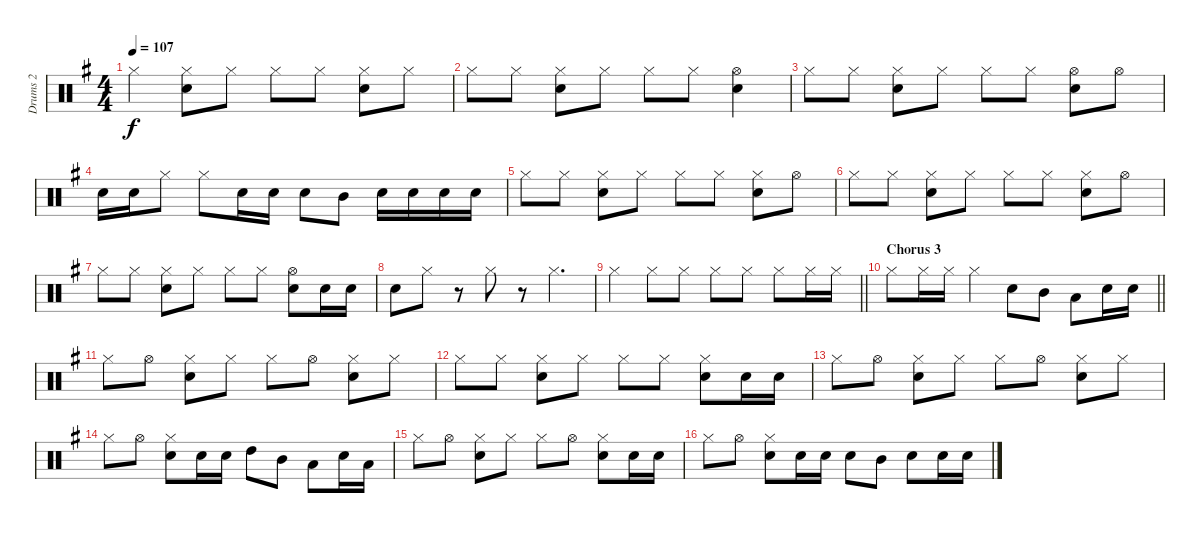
\track ("Drums 2" "Drums 2") {instrument percussion}
\staff {score}
\articulation defaults
\ts (4 4)
\tempo 107
\clef neutral
\ks g "Hi-Hat (closed)".4{dy f}
("Hi-Hat (closed)" "Snare (hit) 2").8 "Hi-Hat (closed)".8 "Hi-Hat (closed)".8 "Hi-Hat (closed)".8 ("Hi-Hat (closed)" "Snare (hit) 2").8 "Hi-Hat (closed)".8 |
"Hi-Hat (closed)".8 "Hi-Hat (closed)".8 ("Snare (hit) 2" "Hi-Hat (closed)").8 "Hi-Hat (closed)".8 "Hi-Hat (closed)".8 "Hi-Hat (closed)".8 ("Snare (hit) 2" "Hi-Hat (open)").4 |
"Hi-Hat (closed)".8 "Hi-Hat (closed)".8 ("Snare (hit) 2" "Hi-Hat (closed)").8 "Hi-Hat (closed)".8 "Hi-Hat (closed)".8 "Hi-Hat (closed)".8 ("Hi-Hat (open)" "Snare (hit) 2").8 "Hi-Hat (open)".8 |
"Snare (hit) 2".16 "Snare (hit) 2".16 "Hi-Hat (closed)".8 "Hi-Hat (closed)".8 "Snare (hit) 2".16 "Snare (hit) 2".16 "Snare (hit) 2".8 "Mid Tom (hit)".8 "Snare (hit) 2".16 "Snare (hit) 2".16 "Snare (hit) 2".16 "Snare (hit) 2".16 |
"Hi-Hat (closed)".8 "Hi-Hat (closed)".8 ("Snare (hit) 2" "Hi-Hat (closed)").8 "Hi-Hat (closed)".8 "Hi-Hat (closed)".8 "Hi-Hat (closed)".8 ("Hi-Hat (closed)" "Snare (hit) 2").8 "Hi-Hat (open)".8 |
"Hi-Hat (closed)".8 "Hi-Hat (closed)".8 ("Snare (hit) 2" "Hi-Hat (closed)").8 "Hi-Hat (closed)".8 "Hi-Hat (closed)".8 "Hi-Hat (closed)".8 ("Snare (hit) 2" "Hi-Hat (closed)").8 "Hi-Hat (open)".8 |
"Hi-Hat (closed)".8 "Hi-Hat (closed)".8 ("Snare (hit) 2" "Hi-Hat (closed)").8 "Hi-Hat (closed)".8 "Hi-Hat (closed)".8 "Hi-Hat (closed)".8 ("Hi-Hat (open)" "Snare (hit) 2").8 "Snare (hit) 2".16 "Snare (hit) 2".16 |
"Snare (hit) 2".8 "Hi-Hat (closed)".8 r.8 "Hi-Hat (closed)".8 r.8 "Hi-Hat (closed)".4{d} |
\barLineRight lightlight "Hi-Hat (closed)".4 "Hi-Hat (closed)".8 "Hi-Hat (closed)".8 "Hi-Hat (closed)".8 "Hi-Hat (closed)".8 "Hi-Hat (closed)".8 "Hi-Hat (closed)".16 "Hi-Hat (closed)".16
|
\section ("" "Chorus 3")
\barLineRight lightlight "Hi-Hat (closed)".8 "Hi-Hat (closed)".16 "Hi-Hat (closed)".16 "Hi-Hat (closed)".4 "Snare (hit) 2".8 "Mid Tom (hit)".8 "Low Tom (hit)".8 "Snare (hit) 2".16 "Snare (hit) 2".16
|
"Hi-Hat (closed)".8 "Hi-Hat (open)".8 ("Snare (hit) 2" "Hi-Hat (closed)").8 "Hi-Hat (closed)".8 "Hi-Hat (closed)".8 "Hi-Hat (open)".8 ("Hi-Hat (closed)" "Snare (hit) 2").8 "Hi-Hat (closed)".8 |
"Hi-Hat (closed)".8 "Hi-Hat (closed)".8 ("Snare (hit) 2" "Hi-Hat (closed)").8 "Hi-Hat (closed)".8 "Hi-Hat (closed)".8 "Hi-Hat (closed)".8 ("Snare (hit) 2" "Hi-Hat (closed)").8 "Snare (hit) 2".16 "Snare (hit) 2".16 |
"Hi-Hat (closed)".8 "Hi-Hat (open)".8 ("Snare (hit) 2" "Hi-Hat (closed)").8 "Hi-Hat (closed)".8 "Hi-Hat (closed)".8 "Hi-Hat (open)".8 ("Snare (hit) 2" "Hi-Hat (closed)").8 "Hi-Hat (closed)".8 |
"Hi-Hat (closed)".8 "Hi-Hat (open)".8 ("Hi-Hat (closed)" "Snare (hit) 2").8 "Snare (hit) 2".16 "Snare (hit) 2".16 "High Tom (hit)".8 "Mid Tom (hit)".8 "Low Tom (hit)".8 "Snare (hit) 2".16 "Low Tom (hit)".16 |
"Hi-Hat (closed)".8 "Hi-Hat (open)".8 ("Snare (hit) 2" "Hi-Hat (closed)").8 "Hi-Hat (closed)".8 "Hi-Hat (closed)".8 "Hi-Hat (open)".8 ("Snare (hit) 2" "Hi-Hat (closed)").8 "Snare (hit) 2".16 "Snare (hit) 2".16 |
"Hi-Hat (closed)".8 "Hi-Hat (open)".8 ("Snare (hit) 2" "Hi-Hat (closed)").8 "Snare (hit) 2".16 "Snare (hit) 2".16 "Snare (hit) 2".8 "Mid Tom (hit)".8 "Snare (hit) 2".8 "Snare (hit) 2".16 "Snare (hit) 2".16
